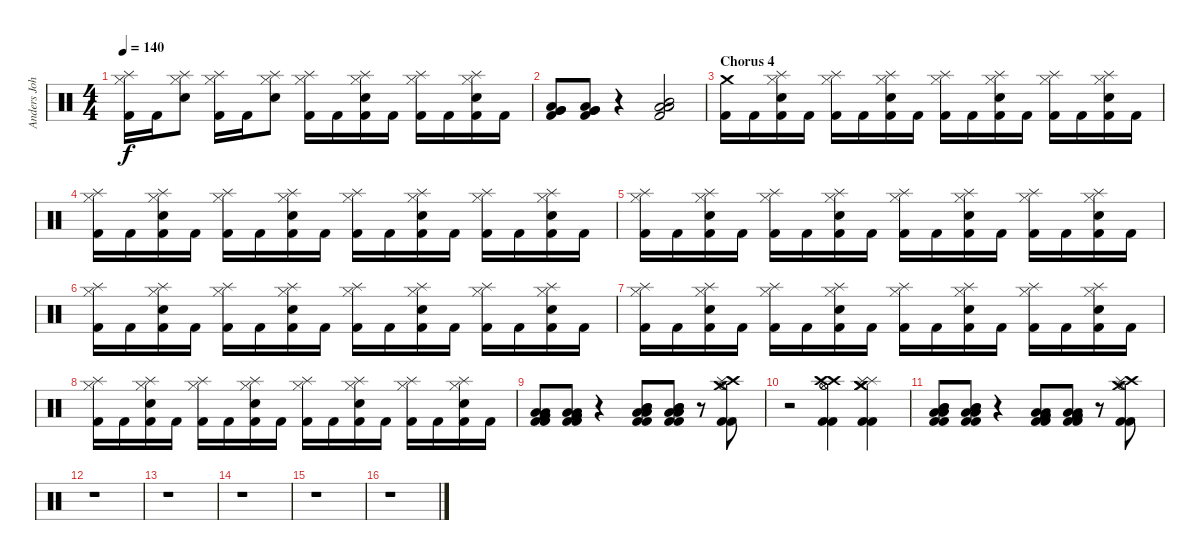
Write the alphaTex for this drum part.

\track ("Anders Johansson :: Drums" "Anders Joh") {instrument percussion}
\staff {score}
\articulation defaults
\ts (4 4)
\tempo 140
\clef neutral
\ks c
("Hi-Hat (closed)" "Splash (hit)" "Kick (hit) 2").16{dy f} "Kick (hit) 2".16 ("Hi-Hat (closed)" "Splash (hit)" "Snare (hit) 2").8 ("Hi-Hat (closed)" "Splash (hit)" "Kick (hit) 2").16 "Kick (hit) 2".16 ("Hi-Hat (closed)" "Splash (hit)" "Snare (hit) 2").8 ("Hi-Hat (closed)" "Splash (hit)" "Kick (hit) 2").16 "Kick (hit) 2".16 ("Hi-Hat (closed)" "Splash (hit)" "Snare (hit) 2" "Kick (hit) 2").16 "Kick (hit) 2".16 ("Hi-Hat (closed)" "Splash (hit)" "Kick (hit) 2").16 "Kick (hit) 2".16 ("Hi-Hat (closed)" "Splash (hit)" "Snare (hit) 2" "Kick (hit) 2").16 "Kick (hit) 2".16 |
("Low Tom (hit)" "Very Low Tom (hit)" "Very Low Tom (hit)" "Kick (hit) 2").8 ("Low Tom (hit)" "Very Low Tom (hit)" "Very Low Tom (hit)" "Kick (hit) 2").8 r.4 ("Mid Tom (hit)" "Low Tom (hit)" "Low Tom (hit)" "Kick (hit) 2").2 |
\section ("" "Chorus 4")
("Crash medium (hit)" "Kick (hit) 2").16 "Kick (hit) 2".16 ("Hi-Hat (closed)" "Splash (hit)" "Snare (hit) 2" "Kick (hit) 2").16 "Kick (hit) 2".16 ("Hi-Hat (closed)" "Splash (hit)" "Kick (hit) 2").16 "Kick (hit) 2".16 ("Hi-Hat (closed)" "Splash (hit)" "Snare (hit) 2" "Kick (hit) 2").16 "Kick (hit) 2".16 ("Hi-Hat (closed)" "Splash (hit)" "Kick (hit) 2").16 "Kick (hit) 2".16 ("Hi-Hat (closed)" "Splash (hit)" "Snare (hit) 2" "Kick (hit) 2").16 "Kick (hit) 2".16 ("Hi-Hat (closed)" "Splash (hit)" "Kick (hit) 2").16 "Kick (hit) 2".16 ("Hi-Hat (closed)" "Splash (hit)" "Snare (hit) 2" "Kick (hit) 2").16 "Kick (hit) 2".16 |
("Hi-Hat (closed)" "Splash (hit)" "Kick (hit) 2").16 "Kick (hit) 2".16 ("Hi-Hat (closed)" "Splash (hit)" "Snare (hit) 2" "Kick (hit) 2").16 "Kick (hit) 2".16 ("Hi-Hat (closed)" "Splash (hit)" "Kick (hit) 2").16 "Kick (hit) 2".16 ("Hi-Hat (closed)" "Splash (hit)" "Snare (hit) 2" "Kick (hit) 2").16 "Kick (hit) 2".16 ("Hi-Hat (closed)" "Splash (hit)" "Kick (hit) 2").16 "Kick (hit) 2".16 ("Hi-Hat (closed)" "Splash (hit)" "Snare (hit) 2" "Kick (hit) 2").16 "Kick (hit) 2".16 ("Hi-Hat (closed)" "Splash (hit)" "Kick (hit) 2").16 "Kick (hit) 2".16 ("Hi-Hat (closed)" "Splash (hit)" "Snare (hit) 2" "Kick (hit) 2").16 "Kick (hit) 2".16 |
("Hi-Hat (closed)" "Splash (hit)" "Kick (hit) 2").16 "Kick (hit) 2".16 ("Hi-Hat (closed)" "Splash (hit)" "Snare (hit) 2" "Kick (hit) 2").16 "Kick (hit) 2".16 ("Hi-Hat (closed)" "Splash (hit)" "Kick (hit) 2").16 "Kick (hit) 2".16 ("Hi-Hat (closed)" "Splash (hit)" "Snare (hit) 2" "Kick (hit) 2").16 "Kick (hit) 2".16 ("Hi-Hat (closed)" "Splash (hit)" "Kick (hit) 2").16 "Kick (hit) 2".16 ("Hi-Hat (closed)" "Splash (hit)" "Snare (hit) 2" "Kick (hit) 2").16 "Kick (hit) 2".16 ("Hi-Hat (closed)" "Splash (hit)" "Kick (hit) 2").16 "Kick (hit) 2".16 ("Hi-Hat (closed)" "Splash (hit)" "Snare (hit) 2" "Kick (hit) 2").16 "Kick (hit) 2".16 |
("Hi-Hat (closed)" "Splash (hit)" "Kick (hit) 2").16 "Kick (hit) 2".16 ("Hi-Hat (closed)" "Splash (hit)" "Snare (hit) 2" "Kick (hit) 2").16 "Kick (hit) 2".16 ("Hi-Hat (closed)" "Splash (hit)" "Kick (hit) 2").16 "Kick (hit) 2".16 ("Hi-Hat (closed)" "Splash (hit)" "Snare (hit) 2" "Kick (hit) 2").16 "Kick (hit) 2".16 ("Hi-Hat (closed)" "Splash (hit)" "Kick (hit) 2").16 "Kick (hit) 2".16 ("Hi-Hat (closed)" "Splash (hit)" "Snare (hit) 2" "Kick (hit) 2").16 "Kick (hit) 2".16 ("Hi-Hat (closed)" "Splash (hit)" "Kick (hit) 2").16 "Kick (hit) 2".16 ("Hi-Hat (closed)" "Splash (hit)" "Snare (hit) 2" "Kick (hit) 2").16 "Kick (hit) 2".16 |
("Hi-Hat (closed)" "Splash (hit)" "Kick (hit) 2").16 "Kick (hit) 2".16 ("Hi-Hat (closed)" "Splash (hit)" "Snare (hit) 2" "Kick (hit) 2").16 "Kick (hit) 2".16 ("Hi-Hat (closed)" "Splash (hit)" "Kick (hit) 2").16 "Kick (hit) 2".16 ("Hi-Hat (closed)" "Splash (hit)" "Snare (hit) 2" "Kick (hit) 2").16 "Kick (hit) 2".16 ("Hi-Hat (closed)" "Splash (hit)" "Kick (hit) 2").16 "Kick (hit) 2".16 ("Hi-Hat (closed)" "Splash (hit)" "Snare (hit) 2" "Kick (hit) 2").16 "Kick (hit) 2".16 ("Hi-Hat (closed)" "Splash (hit)" "Kick (hit) 2").16 "Kick (hit) 2".16 ("Hi-Hat (closed)" "Splash (hit)" "Snare (hit) 2" "Kick (hit) 2").16 "Kick (hit) 2".16 |
("Hi-Hat (closed)" "Splash (hit)" "Kick (hit) 2").16 "Kick (hit) 2".16 ("Hi-Hat (closed)" "Splash (hit)" "Snare (hit) 2" "Kick (hit) 2").16 "Kick (hit) 2".16 ("Hi-Hat (closed)" "Splash (hit)" "Kick (hit) 2").16 "Kick (hit) 2".16 ("Hi-Hat (closed)" "Splash (hit)" "Snare (hit) 2" "Kick (hit) 2").16 "Kick (hit) 2".16 ("Hi-Hat (closed)" "Splash (hit)" "Kick (hit) 2").16 "Kick (hit) 2".16 ("Hi-Hat (closed)" "Splash (hit)" "Snare (hit) 2" "Kick (hit) 2").16 "Kick (hit) 2".16 ("Hi-Hat (closed)" "Splash (hit)" "Kick (hit) 2").16 "Kick (hit) 2".16 ("Hi-Hat (closed)" "Splash (hit)" "Snare (hit) 2" "Kick (hit) 2").16 "Kick (hit) 2".16 |
("Low Tom (hit)" "Low Tom (hit)" "Very Low Tom (hit)" "Very Low Tom (hit)" "Kick (hit) 2" "Kick (hit) 2").8 ("Low Tom (hit)" "Low Tom (hit)" "Very Low Tom (hit)" "Very Low Tom (hit)" "Kick (hit) 2" "Kick (hit) 2").8 r.4 ("Mid Tom (hit)" "Mid Tom (hit)" "Low Tom (hit)" "Low Tom (hit)" "Kick (hit) 2" "Kick (hit) 2").8 ("Mid Tom (hit)" "Mid Tom (hit)" "Low Tom (hit)" "Low Tom (hit)" "Kick (hit) 2" "Kick (hit) 2").8 r.8 ("Crash high (hit)" "Crash medium (hit)" "Hi-Hat (open)" "Splash (hit)" "Kick (hit) 2" "Kick (hit) 2").8 |
r.2 ("Crash high (hit)" "Crash high (hit)" "Hi-Hat (open)" "Hi-Hat (open)" "Kick (hit) 2" "Kick (hit) 2").4 ("Crash medium (hit)" "Crash medium (hit)" "Splash (hit)" "Splash (hit)" "Kick (hit) 2" "Kick (hit) 2").4 |
("Mid Tom (hit)" "Mid Tom (hit)" "Low Tom (hit)" "Low Tom (hit)" "Kick (hit) 2" "Kick (hit) 2").8 ("Mid Tom (hit)" "Mid Tom (hit)" "Low Tom (hit)" "Low Tom (hit)" "Kick (hit) 2" "Kick (hit) 2").8 r.4 ("Low Tom (hit)" "Low Tom (hit)" "Very Low Tom (hit)" "Very Low Tom (hit)" "Kick (hit) 2" "Kick (hit) 2").8 ("Low Tom (hit)" "Low Tom (hit)" "Very Low Tom (hit)" "Very Low Tom (hit)" "Kick (hit) 2" "Kick (hit) 2").8 r.8 ("Crash high (hit)" "Crash medium (hit)" "Hi-Hat (open)" "Splash (hit)" "Kick (hit) 2" "Kick (hit) 2").8 |
r.1 |
r.1 |
r.1 |
r.1 |
r.1
